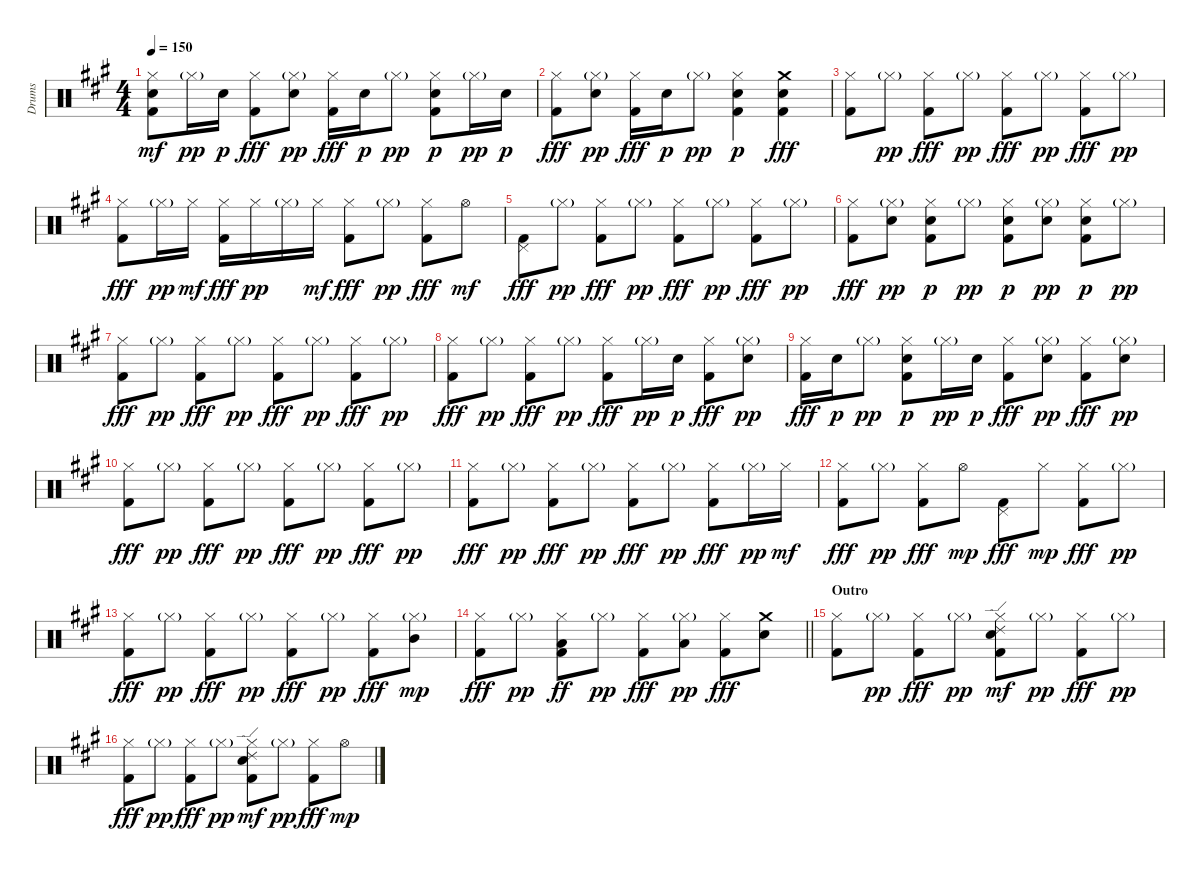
\track ("Drums" "Drums") {instrument percussion}
\staff {score}
\articulation defaults
\ts (4 4)
\tempo 150
\clef neutral
\ks a
("Kick (hit) 2" "Electric Snare (hit)" "Hi-Hat (closed)").8{dy mf} "Hi-Hat (closed)"{g}.16{dy pp} "Electric Snare (hit)".16{dy p} ("Kick (hit) 2" "Hi-Hat (closed)").8{dy fff} ("Electric Snare (hit)" "Hi-Hat (closed)"{g}).8{dy pp} ("Kick (hit) 2" "Hi-Hat (closed)").16{dy fff} "Electric Snare (hit)".16{dy p} "Hi-Hat (closed)"{g}.8{dy pp} ("Kick (hit) 2" "Electric Snare (hit)" "Hi-Hat (closed)").8{dy p} "Hi-Hat (closed)"{g}.16{dy pp} "Electric Snare (hit)".16{dy p} |
("Kick (hit) 2" "Hi-Hat (closed)").8{dy fff} ("Electric Snare (hit)" "Hi-Hat (closed)"{g}).8{dy pp} ("Kick (hit) 2" "Hi-Hat (closed)").16{dy fff} "Electric Snare (hit)".16{dy p} "Hi-Hat (closed)"{g}.8{dy pp} ("Kick (hit) 2" "Electric Snare (hit)" "Hi-Hat (closed)").4{dy p} ("Kick (hit) 2" "Electric Snare (hit)" "Crash medium (hit)").4{dy fff} |
("Kick (hit) 2" "Hi-Hat (closed)").8 "Hi-Hat (closed)"{g}.8{dy pp} ("Kick (hit) 2" "Hi-Hat (closed)").8{dy fff} "Hi-Hat (closed)"{g}.8{dy pp} ("Kick (hit) 2" "Hi-Hat (closed)").8{dy fff} "Hi-Hat (closed)"{g}.8{dy pp} ("Kick (hit) 2" "Hi-Hat (closed)").8{dy fff} "Hi-Hat (closed)"{g}.8{dy pp} |
("Kick (hit) 2" "Hi-Hat (closed)").8{dy fff} "Hi-Hat (closed)"{g}.16{dy pp} "Hi-Hat (closed)".16{dy mf} ("Kick (hit) 2" "Hi-Hat (closed)").16{dy fff} "Hi-Hat (closed)".16{dy pp} "Hi-Hat (closed)"{g}.16 "Hi-Hat (closed)".16{dy mf} ("Kick (hit) 2" "Hi-Hat (closed)").8{dy fff} "Hi-Hat (closed)"{g}.8{dy pp} ("Kick (hit) 2" "Hi-Hat (closed)").8{dy fff} "Hi-Hat (open)".8{dy mf} |
("Kick (hit) 2" "Pedal Hi-Hat (hit)").8{dy fff} "Hi-Hat (closed)"{g}.8{dy pp} ("Kick (hit) 2" "Hi-Hat (closed)").8{dy fff} "Hi-Hat (closed)"{g}.8{dy pp} ("Kick (hit) 2" "Hi-Hat (closed)").8{dy fff} "Hi-Hat (closed)"{g}.8{dy pp} ("Kick (hit) 2" "Hi-Hat (closed)").8{dy fff} "Hi-Hat (closed)"{g}.8{dy pp} |
("Kick (hit) 2" "Hi-Hat (closed)").8{dy fff} ("Electric Snare (hit)" "Hi-Hat (closed)"{g}).8{dy pp} ("Kick (hit) 2" "Electric Snare (hit)" "Hi-Hat (closed)").8{dy p} "Hi-Hat (closed)"{g}.8{dy pp} ("Kick (hit) 2" "Electric Snare (hit)" "Hi-Hat (closed)").8{dy p} ("Electric Snare (hit)" "Hi-Hat (closed)"{g}).8{dy pp} ("Kick (hit) 2" "Electric Snare (hit)" "Hi-Hat (closed)").8{dy p} "Hi-Hat (closed)"{g}.8{dy pp} |
("Kick (hit) 2" "Hi-Hat (closed)").8{dy fff} "Hi-Hat (closed)"{g}.8{dy pp} ("Kick (hit) 2" "Hi-Hat (closed)").8{dy fff} "Hi-Hat (closed)"{g}.8{dy pp} ("Kick (hit) 2" "Hi-Hat (closed)").8{dy fff} "Hi-Hat (closed)"{g}.8{dy pp} ("Kick (hit) 2" "Hi-Hat (closed)").8{dy fff} "Hi-Hat (closed)"{g}.8{dy pp} |
("Kick (hit) 2" "Hi-Hat (closed)").8{dy fff} "Hi-Hat (closed)"{g}.8{dy pp} ("Kick (hit) 2" "Hi-Hat (closed)").8{dy fff} "Hi-Hat (closed)"{g}.8{dy pp} ("Kick (hit) 2" "Hi-Hat (closed)").8{dy fff} "Hi-Hat (closed)"{g}.16{dy pp} "Electric Snare (hit)".16{dy p} ("Kick (hit) 2" "Hi-Hat (closed)").8{dy fff} ("Electric Snare (hit)" "Hi-Hat (closed)"{g}).8{dy pp} |
("Kick (hit) 2" "Hi-Hat (closed)").16{dy fff} "Electric Snare (hit)".16{dy p} "Hi-Hat (closed)"{g}.8{dy pp} ("Kick (hit) 2" "Electric Snare (hit)" "Hi-Hat (closed)").8{dy p} "Hi-Hat (closed)"{g}.16{dy pp} "Electric Snare (hit)".16{dy p} ("Kick (hit) 2" "Hi-Hat (closed)").8{dy fff} ("Electric Snare (hit)" "Hi-Hat (closed)"{g}).8{dy pp} ("Kick (hit) 2" "Hi-Hat (closed)").8{dy fff} ("Electric Snare (hit)" "Hi-Hat (closed)"{g}).8{dy pp} |
("Kick (hit) 2" "Hi-Hat (closed)").8{dy fff} "Hi-Hat (closed)"{g}.8{dy pp} ("Kick (hit) 2" "Hi-Hat (closed)").8{dy fff} "Hi-Hat (closed)"{g}.8{dy pp} ("Kick (hit) 2" "Hi-Hat (closed)").8{dy fff} "Hi-Hat (closed)"{g}.8{dy pp} ("Kick (hit) 2" "Hi-Hat (closed)").8{dy fff} "Hi-Hat (closed)"{g}.8{dy pp} |
("Kick (hit) 2" "Hi-Hat (closed)").8{dy fff} "Hi-Hat (closed)"{g}.8{dy pp} ("Kick (hit) 2" "Hi-Hat (closed)").8{dy fff} "Hi-Hat (closed)"{g}.8{dy pp} ("Kick (hit) 2" "Hi-Hat (closed)").8{dy fff} "Hi-Hat (closed)"{g}.8{dy pp} ("Kick (hit) 2" "Hi-Hat (closed)").8{dy fff} "Hi-Hat (closed)"{g}.16{dy pp} "Hi-Hat (closed)".16{dy mf} |
("Kick (hit) 2" "Hi-Hat (closed)").8{dy fff} "Hi-Hat (closed)"{g}.8{dy pp} ("Kick (hit) 2" "Hi-Hat (closed)").8{dy fff} "Hi-Hat (open)".8{dy mp} ("Kick (hit) 2" "Pedal Hi-Hat (hit)").8{dy fff} "Hi-Hat (closed)".8{dy mp} ("Kick (hit) 2" "Hi-Hat (closed)").8{dy fff} "Hi-Hat (closed)"{g}.8{dy pp} |
("Kick (hit) 2" "Hi-Hat (closed)").8{dy fff} "Hi-Hat (closed)"{g}.8{dy pp} ("Kick (hit) 2" "Hi-Hat (closed)").8{dy fff} "Hi-Hat (closed)"{g}.8{dy pp} ("Kick (hit) 2" "Hi-Hat (closed)").8{dy fff} "Hi-Hat (closed)"{g}.8{dy pp} ("Kick (hit) 2" "Hi-Hat (closed)").8{dy fff} ("Hi-Hat (closed)"{g} "Mid Tom (hit)").8{dy mp} |
\barLineRight lightlight
("Kick (hit) 2" "Hi-Hat (closed)").8{dy fff} "Hi-Hat (closed)"{g}.8{dy pp} ("Kick (hit) 2" "Hi-Hat (closed)" "Low Tom (hit)").8{dy ff} "Hi-Hat (closed)"{g}.8{dy pp} ("Kick (hit) 2" "Hi-Hat (closed)").8{dy fff} ("Low Floor Tom (hit)" "Hi-Hat (closed)"{g}).8{dy pp} ("Kick (hit) 2" "Hi-Hat (closed)").8{dy fff} ("Electric Snare (hit)" "Crash medium (hit)").8 |
\section ("" "Outro")
("Kick (hit) 2" "Hi-Hat (closed)").8 "Hi-Hat (closed)"{g}.8{dy pp} ("Kick (hit) 2" "Hi-Hat (closed)").8{dy fff} "Hi-Hat (closed)"{g}.8{dy pp} ("Kick (hit) 2" "Electric Snare (hit)" "Hi-Hat (closed)" "Ride (edge) 2").8{dy mf} "Hi-Hat (closed)"{g}.8{dy pp} ("Kick (hit) 2" "Hi-Hat (closed)").8{dy fff} "Hi-Hat (closed)"{g}.8{dy pp} |
("Kick (hit) 2" "Hi-Hat (closed)").8{dy fff} "Hi-Hat (closed)"{g}.8{dy pp} ("Kick (hit) 2" "Hi-Hat (closed)").8{dy fff} "Hi-Hat (closed)"{g}.8{dy pp} ("Kick (hit) 2" "Electric Snare (hit)" "Hi-Hat (closed)" "Ride (edge) 2").8{dy mf} "Hi-Hat (closed)"{g}.8{dy pp} ("Kick (hit) 2" "Hi-Hat (closed)").8{dy fff} "Hi-Hat (open)".8{dy mp}
